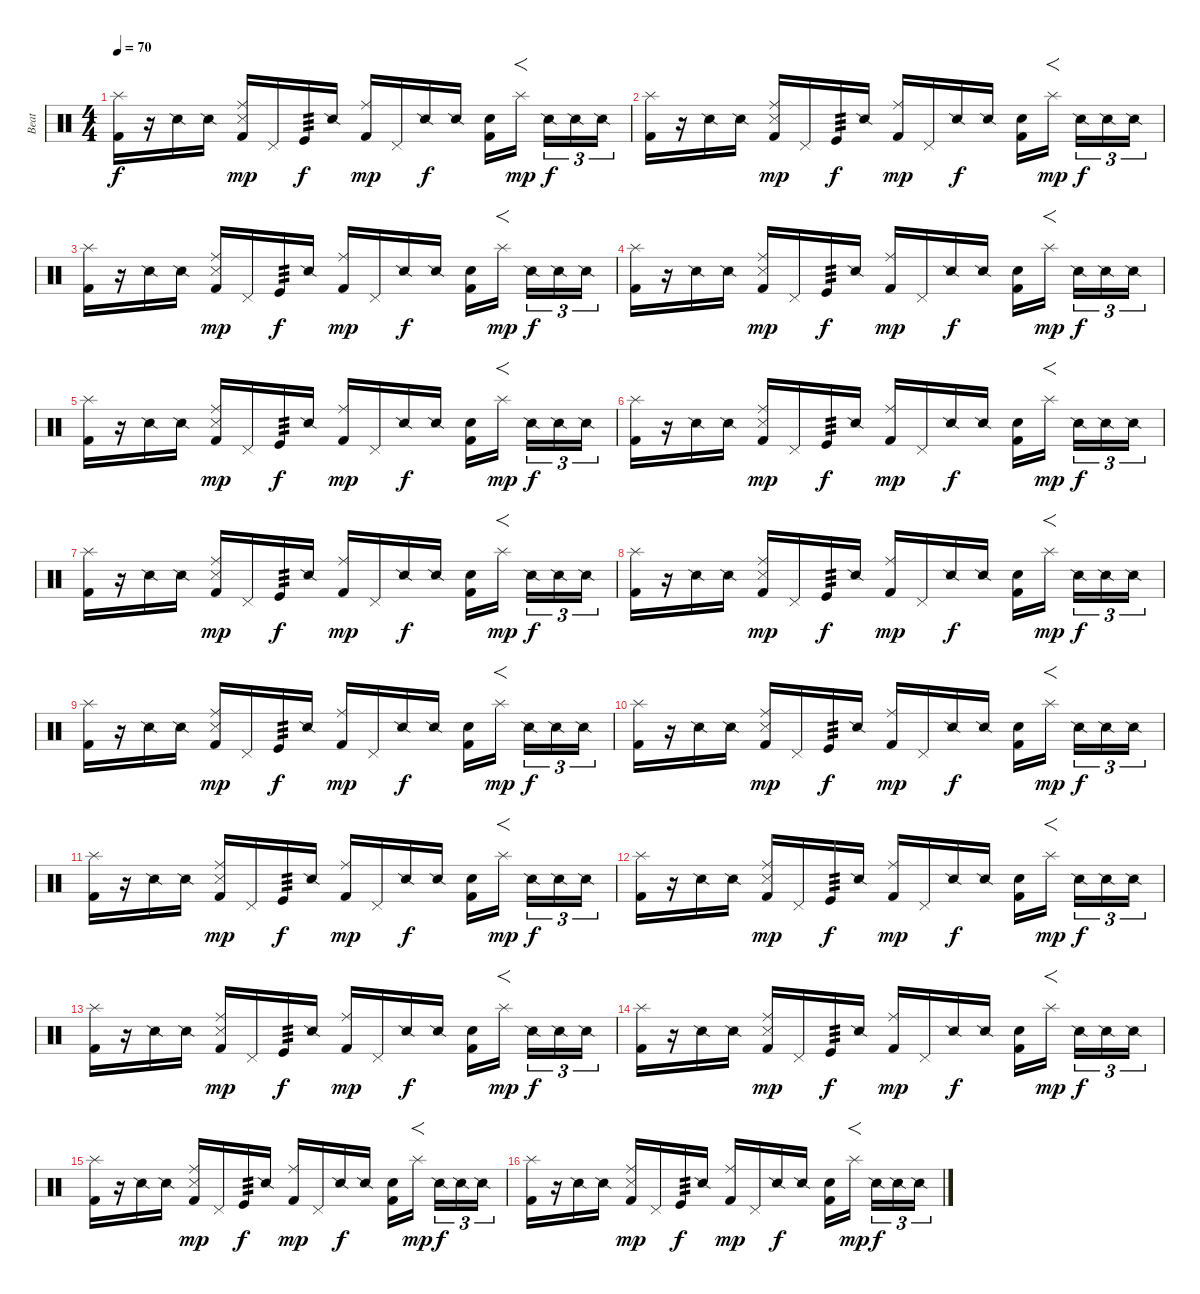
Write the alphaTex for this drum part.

\track ("Beat" "Beat") {instrument percussion}
\staff {score}
\articulation defaults
\ts (4 4)
\tempo 70
\clef neutral
\ks c
("Splash (hit)" "Kick (hit) 2").16{dy f} r.16 "Snare (side stick) 2".16 "Snare (side stick) 2".16 ("Metronome (hit)" "Ride (middle)" "Kick (hit) 2").16{dy mp} "Pedal Hi-Hat (hit)".16 "Kick (hit)".16{tp 3 dy f} "Snare (side stick) 2".16 ("Ride (middle)" "Kick (hit) 2").16{dy mp} "Pedal Hi-Hat (hit)".16 "Snare (side stick) 2".16{dy f} "Snare (side stick) 2".16 ("Electric Snare (hit)" "Kick (hit) 2").16 "Splash (hit)".16{f dy mp} "Snare (side stick) 2".16{tu (3 2) dy f} "Snare (side stick) 2".16{tu (3 2)} "Snare (side stick) 2".16{tu (3 2)} |
("Splash (hit)" "Kick (hit) 2").16 r.16 "Snare (side stick) 2".16 "Snare (side stick) 2".16 ("Metronome (hit)" "Ride (middle)" "Kick (hit) 2").16{dy mp} "Pedal Hi-Hat (hit)".16 "Kick (hit)".16{tp 3 dy f} "Snare (side stick) 2".16 ("Ride (middle)" "Kick (hit) 2").16{dy mp} "Pedal Hi-Hat (hit)".16 "Snare (side stick) 2".16{dy f} "Snare (side stick) 2".16 ("Electric Snare (hit)" "Kick (hit) 2").16 "Splash (hit)".16{f dy mp} "Snare (side stick) 2".16{tu (3 2) dy f} "Snare (side stick) 2".16{tu (3 2)} "Snare (side stick) 2".16{tu (3 2)} |
("Splash (hit)" "Kick (hit) 2").16 r.16 "Snare (side stick) 2".16 "Snare (side stick) 2".16 ("Metronome (hit)" "Ride (middle)" "Kick (hit) 2").16{dy mp} "Pedal Hi-Hat (hit)".16 "Kick (hit)".16{tp 3 dy f} "Snare (side stick) 2".16 ("Ride (middle)" "Kick (hit) 2").16{dy mp} "Pedal Hi-Hat (hit)".16 "Snare (side stick) 2".16{dy f} "Snare (side stick) 2".16 ("Electric Snare (hit)" "Kick (hit) 2").16 "Splash (hit)".16{f dy mp} "Snare (side stick) 2".16{tu (3 2) dy f} "Snare (side stick) 2".16{tu (3 2)} "Snare (side stick) 2".16{tu (3 2)} |
("Splash (hit)" "Kick (hit) 2").16 r.16 "Snare (side stick) 2".16 "Snare (side stick) 2".16 ("Metronome (hit)" "Ride (middle)" "Kick (hit) 2").16{dy mp} "Pedal Hi-Hat (hit)".16 "Kick (hit)".16{tp 3 dy f} "Snare (side stick) 2".16 ("Ride (middle)" "Kick (hit) 2").16{dy mp} "Pedal Hi-Hat (hit)".16 "Snare (side stick) 2".16{dy f} "Snare (side stick) 2".16 ("Electric Snare (hit)" "Kick (hit) 2").16 "Splash (hit)".16{f dy mp} "Snare (side stick) 2".16{tu (3 2) dy f} "Snare (side stick) 2".16{tu (3 2)} "Snare (side stick) 2".16{tu (3 2)} |
("Splash (hit)" "Kick (hit) 2").16 r.16 "Snare (side stick) 2".16 "Snare (side stick) 2".16 ("Metronome (hit)" "Ride (middle)" "Kick (hit) 2").16{dy mp} "Pedal Hi-Hat (hit)".16 "Kick (hit)".16{tp 3 dy f} "Snare (side stick) 2".16 ("Ride (middle)" "Kick (hit) 2").16{dy mp} "Pedal Hi-Hat (hit)".16 "Snare (side stick) 2".16{dy f} "Snare (side stick) 2".16 ("Electric Snare (hit)" "Kick (hit) 2").16 "Splash (hit)".16{f dy mp} "Snare (side stick) 2".16{tu (3 2) dy f} "Snare (side stick) 2".16{tu (3 2)} "Snare (side stick) 2".16{tu (3 2)} |
("Splash (hit)" "Kick (hit) 2").16 r.16 "Snare (side stick) 2".16 "Snare (side stick) 2".16 ("Metronome (hit)" "Ride (middle)" "Kick (hit) 2").16{dy mp} "Pedal Hi-Hat (hit)".16 "Kick (hit)".16{tp 3 dy f} "Snare (side stick) 2".16 ("Ride (middle)" "Kick (hit) 2").16{dy mp} "Pedal Hi-Hat (hit)".16 "Snare (side stick) 2".16{dy f} "Snare (side stick) 2".16 ("Electric Snare (hit)" "Kick (hit) 2").16 "Splash (hit)".16{f dy mp} "Snare (side stick) 2".16{tu (3 2) dy f} "Snare (side stick) 2".16{tu (3 2)} "Snare (side stick) 2".16{tu (3 2)} |
("Splash (hit)" "Kick (hit) 2").16 r.16 "Snare (side stick) 2".16 "Snare (side stick) 2".16 ("Metronome (hit)" "Ride (middle)" "Kick (hit) 2").16{dy mp} "Pedal Hi-Hat (hit)".16 "Kick (hit)".16{tp 3 dy f} "Snare (side stick) 2".16 ("Ride (middle)" "Kick (hit) 2").16{dy mp} "Pedal Hi-Hat (hit)".16 "Snare (side stick) 2".16{dy f} "Snare (side stick) 2".16 ("Electric Snare (hit)" "Kick (hit) 2").16 "Splash (hit)".16{f dy mp} "Snare (side stick) 2".16{tu (3 2) dy f} "Snare (side stick) 2".16{tu (3 2)} "Snare (side stick) 2".16{tu (3 2)} |
("Splash (hit)" "Kick (hit) 2").16 r.16 "Snare (side stick) 2".16 "Snare (side stick) 2".16 ("Metronome (hit)" "Ride (middle)" "Kick (hit) 2").16{dy mp} "Pedal Hi-Hat (hit)".16 "Kick (hit)".16{tp 3 dy f} "Snare (side stick) 2".16 ("Ride (middle)" "Kick (hit) 2").16{dy mp} "Pedal Hi-Hat (hit)".16 "Snare (side stick) 2".16{dy f} "Snare (side stick) 2".16 ("Electric Snare (hit)" "Kick (hit) 2").16 "Splash (hit)".16{f dy mp} "Snare (side stick) 2".16{tu (3 2) dy f} "Snare (side stick) 2".16{tu (3 2)} "Snare (side stick) 2".16{tu (3 2)} |
("Splash (hit)" "Kick (hit) 2").16 r.16 "Snare (side stick) 2".16 "Snare (side stick) 2".16 ("Metronome (hit)" "Ride (middle)" "Kick (hit) 2").16{dy mp} "Pedal Hi-Hat (hit)".16 "Kick (hit)".16{tp 3 dy f} "Snare (side stick) 2".16 ("Ride (middle)" "Kick (hit) 2").16{dy mp} "Pedal Hi-Hat (hit)".16 "Snare (side stick) 2".16{dy f} "Snare (side stick) 2".16 ("Electric Snare (hit)" "Kick (hit) 2").16 "Splash (hit)".16{f dy mp} "Snare (side stick) 2".16{tu (3 2) dy f} "Snare (side stick) 2".16{tu (3 2)} "Snare (side stick) 2".16{tu (3 2)} |
("Splash (hit)" "Kick (hit) 2").16 r.16 "Snare (side stick) 2".16 "Snare (side stick) 2".16 ("Metronome (hit)" "Ride (middle)" "Kick (hit) 2").16{dy mp} "Pedal Hi-Hat (hit)".16 "Kick (hit)".16{tp 3 dy f} "Snare (side stick) 2".16 ("Ride (middle)" "Kick (hit) 2").16{dy mp} "Pedal Hi-Hat (hit)".16 "Snare (side stick) 2".16{dy f} "Snare (side stick) 2".16 ("Electric Snare (hit)" "Kick (hit) 2").16 "Splash (hit)".16{f dy mp} "Snare (side stick) 2".16{tu (3 2) dy f} "Snare (side stick) 2".16{tu (3 2)} "Snare (side stick) 2".16{tu (3 2)} |
("Splash (hit)" "Kick (hit) 2").16 r.16 "Snare (side stick) 2".16 "Snare (side stick) 2".16 ("Metronome (hit)" "Ride (middle)" "Kick (hit) 2").16{dy mp} "Pedal Hi-Hat (hit)".16 "Kick (hit)".16{tp 3 dy f} "Snare (side stick) 2".16 ("Ride (middle)" "Kick (hit) 2").16{dy mp} "Pedal Hi-Hat (hit)".16 "Snare (side stick) 2".16{dy f} "Snare (side stick) 2".16 ("Electric Snare (hit)" "Kick (hit) 2").16 "Splash (hit)".16{f dy mp} "Snare (side stick) 2".16{tu (3 2) dy f} "Snare (side stick) 2".16{tu (3 2)} "Snare (side stick) 2".16{tu (3 2)} |
("Splash (hit)" "Kick (hit) 2").16 r.16 "Snare (side stick) 2".16 "Snare (side stick) 2".16 ("Metronome (hit)" "Ride (middle)" "Kick (hit) 2").16{dy mp} "Pedal Hi-Hat (hit)".16 "Kick (hit)".16{tp 3 dy f} "Snare (side stick) 2".16 ("Ride (middle)" "Kick (hit) 2").16{dy mp} "Pedal Hi-Hat (hit)".16 "Snare (side stick) 2".16{dy f} "Snare (side stick) 2".16 ("Electric Snare (hit)" "Kick (hit) 2").16 "Splash (hit)".16{f dy mp} "Snare (side stick) 2".16{tu (3 2) dy f} "Snare (side stick) 2".16{tu (3 2)} "Snare (side stick) 2".16{tu (3 2)} |
("Splash (hit)" "Kick (hit) 2").16 r.16 "Snare (side stick) 2".16 "Snare (side stick) 2".16 ("Metronome (hit)" "Ride (middle)" "Kick (hit) 2").16{dy mp} "Pedal Hi-Hat (hit)".16 "Kick (hit)".16{tp 3 dy f} "Snare (side stick) 2".16 ("Ride (middle)" "Kick (hit) 2").16{dy mp} "Pedal Hi-Hat (hit)".16 "Snare (side stick) 2".16{dy f} "Snare (side stick) 2".16 ("Electric Snare (hit)" "Kick (hit) 2").16 "Splash (hit)".16{f dy mp} "Snare (side stick) 2".16{tu (3 2) dy f} "Snare (side stick) 2".16{tu (3 2)} "Snare (side stick) 2".16{tu (3 2)} |
("Splash (hit)" "Kick (hit) 2").16 r.16 "Snare (side stick) 2".16 "Snare (side stick) 2".16 ("Metronome (hit)" "Ride (middle)" "Kick (hit) 2").16{dy mp} "Pedal Hi-Hat (hit)".16 "Kick (hit)".16{tp 3 dy f} "Snare (side stick) 2".16 ("Ride (middle)" "Kick (hit) 2").16{dy mp} "Pedal Hi-Hat (hit)".16 "Snare (side stick) 2".16{dy f} "Snare (side stick) 2".16 ("Electric Snare (hit)" "Kick (hit) 2").16 "Splash (hit)".16{f dy mp} "Snare (side stick) 2".16{tu (3 2) dy f} "Snare (side stick) 2".16{tu (3 2)} "Snare (side stick) 2".16{tu (3 2)} |
("Splash (hit)" "Kick (hit) 2").16 r.16 "Snare (side stick) 2".16 "Snare (side stick) 2".16 ("Metronome (hit)" "Ride (middle)" "Kick (hit) 2").16{dy mp} "Pedal Hi-Hat (hit)".16 "Kick (hit)".16{tp 3 dy f} "Snare (side stick) 2".16 ("Ride (middle)" "Kick (hit) 2").16{dy mp} "Pedal Hi-Hat (hit)".16 "Snare (side stick) 2".16{dy f} "Snare (side stick) 2".16 ("Electric Snare (hit)" "Kick (hit) 2").16 "Splash (hit)".16{f dy mp} "Snare (side stick) 2".16{tu (3 2) dy f} "Snare (side stick) 2".16{tu (3 2)} "Snare (side stick) 2".16{tu (3 2)} |
("Splash (hit)" "Kick (hit) 2").16 r.16 "Snare (side stick) 2".16 "Snare (side stick) 2".16 ("Metronome (hit)" "Ride (middle)" "Kick (hit) 2").16{dy mp} "Pedal Hi-Hat (hit)".16 "Kick (hit)".16{tp 3 dy f} "Snare (side stick) 2".16 ("Ride (middle)" "Kick (hit) 2").16{dy mp} "Pedal Hi-Hat (hit)".16 "Snare (side stick) 2".16{dy f} "Snare (side stick) 2".16 ("Electric Snare (hit)" "Kick (hit) 2").16 "Splash (hit)".16{f dy mp} "Snare (side stick) 2".16{tu (3 2) dy f} "Snare (side stick) 2".16{tu (3 2)} "Snare (side stick) 2".16{tu (3 2)}
